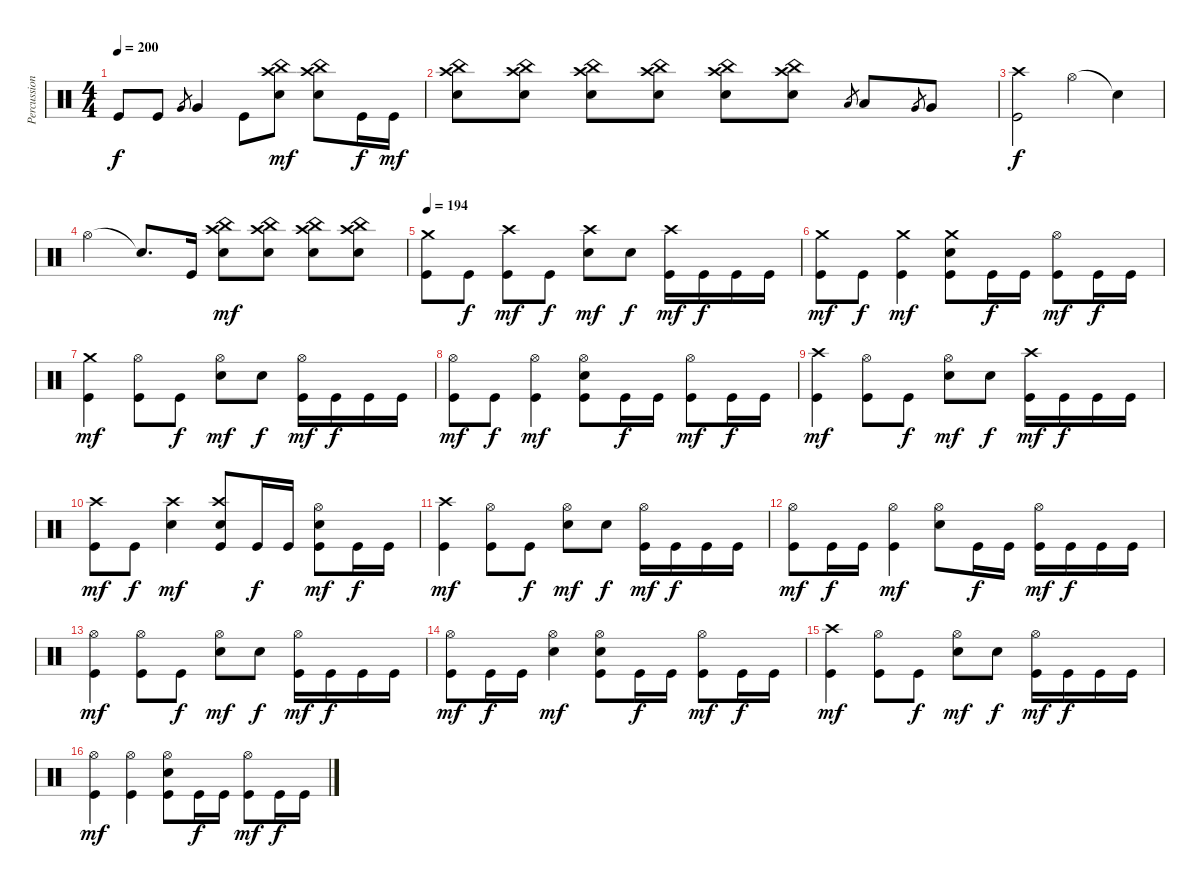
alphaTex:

\track ("Percussion" "Percussion") {instrument percussion}
\staff {score}
\articulation defaults
\ts (4 4)
\tempo 200
\clef neutral
\ks c "Kick (hit)".8{dy f} "Kick (hit)".8 "Very Low Tom (hit)".8{gr} "Very Low Tom (hit)".4 "Kick (hit)".8
("Crash high (hit)" "China (hit)" "Electric Snare (hit)").8{dy mf} ("Crash high (hit)" "China (hit)" "Electric Snare (hit)").8 "Kick (hit)".16{dy f} "Kick (hit)".16{dy mf} |
("Crash high (hit)" "China (hit)" "Electric Snare (hit)").8 ("Crash high (hit)" "China (hit)" "Electric Snare (hit)").8 ("Crash high (hit)" "China (hit)" "Electric Snare (hit)").8 ("Crash high (hit)" "China (hit)" "Electric Snare (hit)").8 ("Crash high (hit)" "China (hit)" "Electric Snare (hit)").8 ("Crash high (hit)" "China (hit)" "Electric Snare (hit)").8 "Low Tom (hit)".8{gr} "Low Tom (hit)".8 "Very Low Tom (hit)".8{gr} "Very Low Tom (hit)".8 |
("Crash high (hit)" "Kick (hit)").2{dy f} "Hi-Hat (open)".4 "Snare (hit)"{t}.4 |
"Hi-Hat (open)".4 "Snare (hit)"{t}.8{d} "Kick (hit)".16 ("Crash high (hit)" "China (hit)" "Electric Snare (hit)").8{dy mf} ("Crash high (hit)" "China (hit)" "Electric Snare (hit)").8 ("Crash high (hit)" "China (hit)" "Electric Snare (hit)").8 ("Crash high (hit)" "China (hit)" "Electric Snare (hit)").8 |
\tempo 194
("Crash medium (hit)" "Kick (hit)").8 "Kick (hit)".8{dy f} ("Crash high (hit)" "Kick (hit)").8{dy mf} "Kick (hit)".8{dy f} ("Crash high (hit)" "Electric Snare (hit)").8{dy mf} "Electric Snare (hit)".8{dy f} ("Crash high (hit)" "Kick (hit)").16{dy mf} "Kick (hit)".16{dy f} "Kick (hit)".16 "Kick (hit)".16 |
("Crash medium (hit)" "Kick (hit)").8{dy mf} "Kick (hit)".8{dy f} ("Crash medium (hit)" "Kick (hit)").4{dy mf} ("Crash medium (hit)" "Electric Snare (hit)" "Kick (hit)").8 "Kick (hit)".16{dy f} "Kick (hit)".16 ("Hi-Hat (open)" "Kick (hit)").8{dy mf} "Kick (hit)".16{dy f} "Kick (hit)".16 |
("Crash medium (hit)" "Kick (hit)").4{dy mf} ("Hi-Hat (open)" "Kick (hit)").8 "Kick (hit)".8{dy f} ("Hi-Hat (open)" "Electric Snare (hit)").8{dy mf} "Electric Snare (hit)".8{dy f} ("Hi-Hat (open)" "Kick (hit)").16{dy mf} "Kick (hit)".16{dy f} "Kick (hit)".16 "Kick (hit)".16 |
("Hi-Hat (open)" "Kick (hit)").8{dy mf} "Kick (hit)".8{dy f} ("Hi-Hat (open)" "Kick (hit)").4{dy mf} ("Hi-Hat (open)" "Electric Snare (hit)" "Kick (hit)").8 "Kick (hit)".16{dy f} "Kick (hit)".16 ("Hi-Hat (open)" "Kick (hit)").8{dy mf} "Kick (hit)".16{dy f} "Kick (hit)".16 |
("Crash high (hit)" "Kick (hit)").4{dy mf} ("Hi-Hat (open)" "Kick (hit)").8 "Kick (hit)".8{dy f} ("Hi-Hat (open)" "Electric Snare (hit)").8{dy mf} "Electric Snare (hit)".8{dy f} ("Crash high (hit)" "Kick (hit)").16{dy mf} "Kick (hit)".16{dy f} "Kick (hit)".16 "Kick (hit)".16 |
("Crash high (hit)" "Kick (hit)").8{dy mf} "Kick (hit)".8{dy f} ("Crash high (hit)" "Electric Snare (hit)").4{dy mf} ("Crash high (hit)" "Electric Snare (hit)" "Kick (hit)").8 "Kick (hit)".16{dy f} "Kick (hit)".16 ("Hi-Hat (open)" "Electric Snare (hit)" "Kick (hit)").8{dy mf} "Kick (hit)".16{dy f} "Kick (hit)".16 |
("Crash high (hit)" "Kick (hit)").4{dy mf} ("Hi-Hat (open)" "Kick (hit)").8 "Kick (hit)".8{dy f} ("Hi-Hat (open)" "Electric Snare (hit)").8{dy mf} "Electric Snare (hit)".8{dy f} ("Hi-Hat (open)" "Kick (hit)").16{dy mf} "Kick (hit)".16{dy f} "Kick (hit)".16 "Kick (hit)".16 |
("Hi-Hat (open)" "Kick (hit)").8{dy mf} "Kick (hit)".16{dy f} "Kick (hit)".16 ("Hi-Hat (open)" "Kick (hit)").4{dy mf} ("Hi-Hat (open)" "Electric Snare (hit)").8 "Kick (hit)".16{dy f} "Kick (hit)".16 ("Hi-Hat (open)" "Kick (hit)").16{dy mf} "Kick (hit)".16{dy f} "Kick (hit)".16 "Kick (hit)".16 |
("Hi-Hat (open)" "Kick (hit)").4{dy mf} ("Hi-Hat (open)" "Kick (hit)").8 "Kick (hit)".8{dy f} ("Hi-Hat (open)" "Electric Snare (hit)").8{dy mf} "Electric Snare (hit)".8{dy f} ("Hi-Hat (open)" "Kick (hit)").16{dy mf} "Kick (hit)".16{dy f} "Kick (hit)".16 "Kick (hit)".16 |
("Hi-Hat (open)" "Kick (hit)").8{dy mf} "Kick (hit)".16{dy f} "Kick (hit)".16 ("Hi-Hat (open)" "Electric Snare (hit)").4{dy mf} ("Hi-Hat (open)" "Electric Snare (hit)" "Kick (hit)").8 "Kick (hit)".16{dy f} "Kick (hit)".16 ("Hi-Hat (open)" "Kick (hit)").8{dy mf} "Kick (hit)".16{dy f} "Kick (hit)".16 |
("Crash high (hit)" "Kick (hit)").4{dy mf} ("Hi-Hat (open)" "Kick (hit)").8 "Kick (hit)".8{dy f} ("Hi-Hat (open)" "Electric Snare (hit)").8{dy mf} "Electric Snare (hit)".8{dy f} ("Hi-Hat (open)" "Kick (hit)").16{dy mf} "Kick (hit)".16{dy f} "Kick (hit)".16 "Kick (hit)".16 |
("Hi-Hat (open)" "Kick (hit)").4{dy mf} ("Hi-Hat (open)" "Kick (hit)").4 ("Hi-Hat (open)" "Electric Snare (hit)" "Kick (hit)").8 "Kick (hit)".16{dy f} "Kick (hit)".16 ("Hi-Hat (open)" "Kick (hit)").8{dy mf} "Kick (hit)".16{dy f} "Kick (hit)".16
